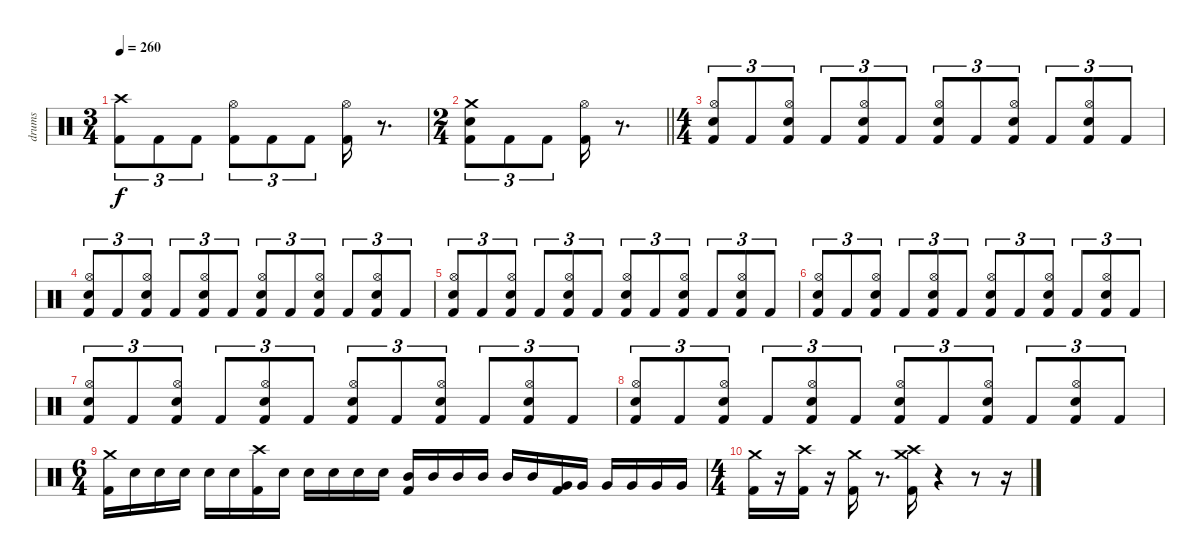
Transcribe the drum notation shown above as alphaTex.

\track ("drums" "drums") {instrument percussion}
\staff {score}
\articulation defaults
\ts (3 4)
\tempo 260
\clef neutral
\ks c
("Kick (hit) 2" "Crash high (hit)").8{tu (3 2) dy f} "Kick (hit) 2".8{tu (3 2)} "Kick (hit) 2".8{tu (3 2)} ("Kick (hit) 2" "Hi-Hat (open)").8{tu (3 2)} "Kick (hit) 2".8{tu (3 2)} "Kick (hit) 2".8{tu (3 2)} ("Kick (hit) 2" "Hi-Hat (open)").16 r.8{d} |
\ts (2 4)
\barLineRight lightlight
("Kick (hit) 2" "Snare (hit) 2" "Crash medium (hit)").8{tu (3 2)} "Kick (hit) 2".8{tu (3 2)} "Kick (hit) 2".8{tu (3 2)} ("Kick (hit) 2" "Hi-Hat (open)").16 r.8{d} |
\ts (4 4)
("Kick (hit) 2" "Snare (hit) 2" "Hi-Hat (open)").8{tu (3 2)} "Kick (hit) 2".8{tu (3 2)} ("Kick (hit) 2" "Snare (hit) 2" "Hi-Hat (open)").8{tu (3 2)} "Kick (hit) 2".8{tu (3 2)} ("Kick (hit) 2" "Snare (hit) 2" "Hi-Hat (open)").8{tu (3 2)} "Kick (hit) 2".8{tu (3 2)} ("Kick (hit) 2" "Snare (hit) 2" "Hi-Hat (open)").8{tu (3 2)} "Kick (hit) 2".8{tu (3 2)} ("Kick (hit) 2" "Snare (hit) 2" "Hi-Hat (open)").8{tu (3 2)} "Kick (hit) 2".8{tu (3 2)} ("Kick (hit) 2" "Snare (hit) 2" "Hi-Hat (open)").8{tu (3 2)} "Kick (hit) 2".8{tu (3 2)} |
("Kick (hit) 2" "Snare (hit) 2" "Hi-Hat (open)").8{tu (3 2)} "Kick (hit) 2".8{tu (3 2)} ("Kick (hit) 2" "Snare (hit) 2" "Hi-Hat (open)").8{tu (3 2)} "Kick (hit) 2".8{tu (3 2)} ("Kick (hit) 2" "Snare (hit) 2" "Hi-Hat (open)").8{tu (3 2)} "Kick (hit) 2".8{tu (3 2)} ("Kick (hit) 2" "Snare (hit) 2" "Hi-Hat (open)").8{tu (3 2)} "Kick (hit) 2".8{tu (3 2)} ("Kick (hit) 2" "Snare (hit) 2" "Hi-Hat (open)").8{tu (3 2)} "Kick (hit) 2".8{tu (3 2)} ("Kick (hit) 2" "Snare (hit) 2" "Hi-Hat (open)").8{tu (3 2)} "Kick (hit) 2".8{tu (3 2)} |
("Kick (hit) 2" "Snare (hit) 2" "Hi-Hat (open)").8{tu (3 2)} "Kick (hit) 2".8{tu (3 2)} ("Kick (hit) 2" "Snare (hit) 2" "Hi-Hat (open)").8{tu (3 2)} "Kick (hit) 2".8{tu (3 2)} ("Kick (hit) 2" "Snare (hit) 2" "Hi-Hat (open)").8{tu (3 2)} "Kick (hit) 2".8{tu (3 2)} ("Kick (hit) 2" "Snare (hit) 2" "Hi-Hat (open)").8{tu (3 2)} "Kick (hit) 2".8{tu (3 2)} ("Kick (hit) 2" "Snare (hit) 2" "Hi-Hat (open)").8{tu (3 2)} "Kick (hit) 2".8{tu (3 2)} ("Kick (hit) 2" "Snare (hit) 2" "Hi-Hat (open)").8{tu (3 2)} "Kick (hit) 2".8{tu (3 2)} |
("Kick (hit) 2" "Snare (hit) 2" "Hi-Hat (open)").8{tu (3 2)} "Kick (hit) 2".8{tu (3 2)} ("Kick (hit) 2" "Snare (hit) 2" "Hi-Hat (open)").8{tu (3 2)} "Kick (hit) 2".8{tu (3 2)} ("Kick (hit) 2" "Snare (hit) 2" "Hi-Hat (open)").8{tu (3 2)} "Kick (hit) 2".8{tu (3 2)} ("Kick (hit) 2" "Snare (hit) 2" "Hi-Hat (open)").8{tu (3 2)} "Kick (hit) 2".8{tu (3 2)} ("Kick (hit) 2" "Snare (hit) 2" "Hi-Hat (open)").8{tu (3 2)} "Kick (hit) 2".8{tu (3 2)} ("Kick (hit) 2" "Snare (hit) 2" "Hi-Hat (open)").8{tu (3 2)} "Kick (hit) 2".8{tu (3 2)} |
("Kick (hit) 2" "Snare (hit) 2" "Hi-Hat (open)").8{tu (3 2)} "Kick (hit) 2".8{tu (3 2)} ("Kick (hit) 2" "Snare (hit) 2" "Hi-Hat (open)").8{tu (3 2)} "Kick (hit) 2".8{tu (3 2)} ("Kick (hit) 2" "Snare (hit) 2" "Hi-Hat (open)").8{tu (3 2)} "Kick (hit) 2".8{tu (3 2)} ("Kick (hit) 2" "Snare (hit) 2" "Hi-Hat (open)").8{tu (3 2)} "Kick (hit) 2".8{tu (3 2)} ("Kick (hit) 2" "Snare (hit) 2" "Hi-Hat (open)").8{tu (3 2)} "Kick (hit) 2".8{tu (3 2)} ("Kick (hit) 2" "Snare (hit) 2" "Hi-Hat (open)").8{tu (3 2)} "Kick (hit) 2".8{tu (3 2)} |
("Kick (hit) 2" "Snare (hit) 2" "Hi-Hat (open)").8{tu (3 2)} "Kick (hit) 2".8{tu (3 2)} ("Kick (hit) 2" "Snare (hit) 2" "Hi-Hat (open)").8{tu (3 2)} "Kick (hit) 2".8{tu (3 2)} ("Kick (hit) 2" "Snare (hit) 2" "Hi-Hat (open)").8{tu (3 2)} "Kick (hit) 2".8{tu (3 2)} ("Kick (hit) 2" "Snare (hit) 2" "Hi-Hat (open)").8{tu (3 2)} "Kick (hit) 2".8{tu (3 2)} ("Kick (hit) 2" "Snare (hit) 2" "Hi-Hat (open)").8{tu (3 2)} "Kick (hit) 2".8{tu (3 2)} ("Kick (hit) 2" "Snare (hit) 2" "Hi-Hat (open)").8{tu (3 2)} "Kick (hit) 2".8{tu (3 2)} |
\ts (6 4)
("Kick (hit) 2" "Crash medium (hit)").16 "Snare (hit) 2".16 "Snare (hit) 2".16 "Snare (hit) 2".16 "Snare (hit) 2".16 "Snare (hit) 2".16 ("Kick (hit) 2" "Crash high (hit)").16 "Snare (hit) 2".16 "Snare (hit) 2".16 "Snare (hit) 2".16 "Snare (hit) 2".16 "Snare (hit) 2".16 ("Kick (hit) 2" "Mid Tom (hit)").16 "Mid Tom (hit)".16 "Mid Tom (hit)".16 "Mid Tom (hit)".16 "Mid Tom (hit)".16 "Mid Tom (hit)".16 ("Kick (hit) 2" "Very Low Tom (hit)").16 "Very Low Tom (hit)".16 "Very Low Tom (hit)".16 "Very Low Tom (hit)".16 "Very Low Tom (hit)".16 "Very Low Tom (hit)".16 |
\ts (4 4)
("Kick (hit) 2" "Crash medium (hit)").16 r.16 ("Kick (hit) 2" "Crash high (hit)").16 r.16 ("Kick (hit) 2" "Crash medium (hit)").16 r.8{d} ("Kick (hit) 2" "Crash high (hit)" "Crash medium (hit)").16 r.4 r.8 r.16
